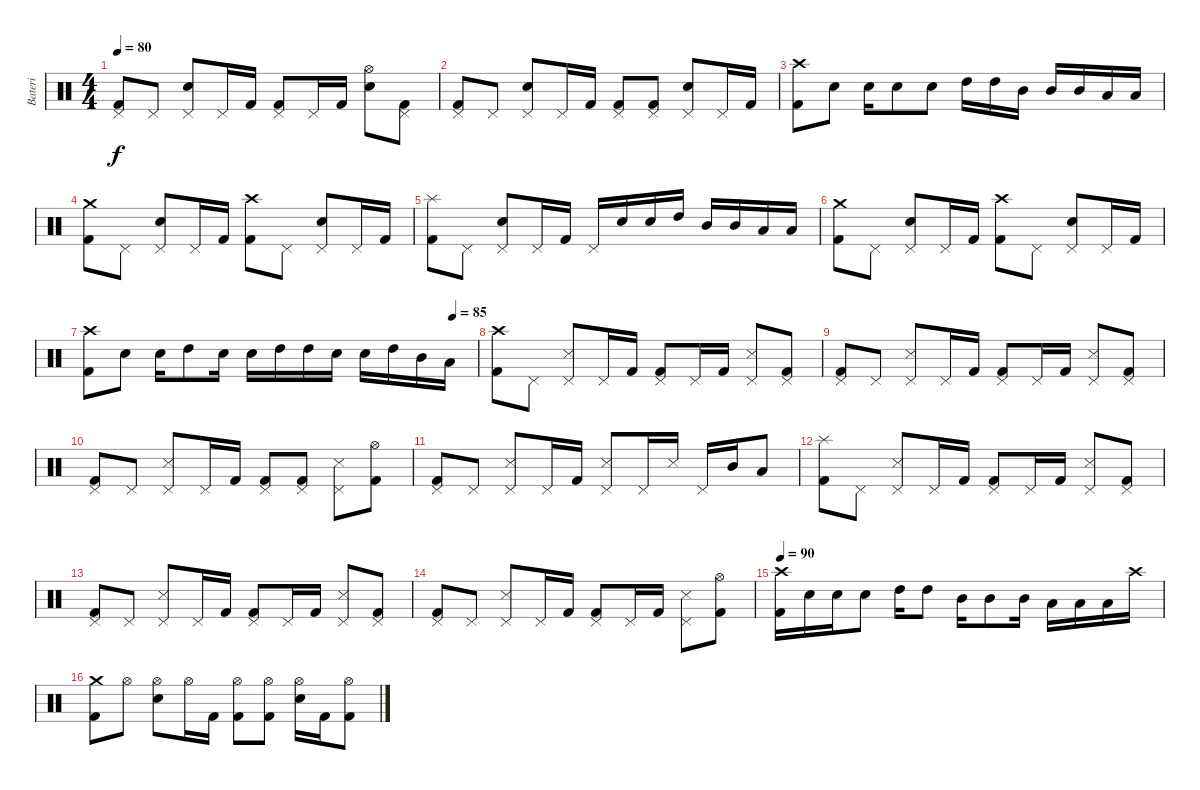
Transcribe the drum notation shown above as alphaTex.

\track ("Bateri" "Bateri") {instrument percussion}
\staff {score}
\articulation defaults
\ts (4 4)
\tempo 80
\clef neutral
\ks c
("Pedal Hi-Hat (hit)" "Kick (hit) 2").8{dy f} "Pedal Hi-Hat (hit)".8 ("Pedal Hi-Hat (hit)" "Electric Snare (hit)").8 "Pedal Hi-Hat (hit)".16 "Kick (hit) 2".16 ("Pedal Hi-Hat (hit)" "Kick (hit) 2").8 "Pedal Hi-Hat (hit)".16 "Kick (hit) 2".16 ("Hi-Hat (open)" "Electric Snare (hit)").8 ("Pedal Hi-Hat (hit)" "Kick (hit) 2").8 |
("Pedal Hi-Hat (hit)" "Kick (hit) 2").8 "Pedal Hi-Hat (hit)".8 ("Pedal Hi-Hat (hit)" "Electric Snare (hit)").8 "Pedal Hi-Hat (hit)".16 "Kick (hit) 2".16 ("Pedal Hi-Hat (hit)" "Kick (hit) 2").8 ("Pedal Hi-Hat (hit)" "Kick (hit) 2").8 ("Pedal Hi-Hat (hit)" "Electric Snare (hit)").8 "Pedal Hi-Hat (hit)".16 "Kick (hit) 2".16 |
("Crash high (hit)" "Kick (hit) 2").8 "Electric Snare (hit)".8 "Electric Snare (hit)".16 "Electric Snare (hit)".8 "Electric Snare (hit)".8 "High Tom (hit)".16 "High Tom (hit)".16 "Mid Tom (hit)".16 "Mid Tom (hit)".16 "Mid Tom (hit)".16 "Low Tom (hit)".16 "Low Tom (hit)".16 |
("Crash medium (hit)" "Kick (hit) 2").8 "Pedal Hi-Hat (hit)".8 ("Pedal Hi-Hat (hit)" "Electric Snare (hit)").8 "Pedal Hi-Hat (hit)".16 "Kick (hit) 2".16 ("Crash high (hit)" "Kick (hit) 2").8 "Pedal Hi-Hat (hit)".8 ("Pedal Hi-Hat (hit)" "Electric Snare (hit)").8 "Pedal Hi-Hat (hit)".16 "Kick (hit) 2".16 |
("Splash (hit)" "Kick (hit) 2").8 "Pedal Hi-Hat (hit)".8 ("Pedal Hi-Hat (hit)" "Electric Snare (hit)").8 "Pedal Hi-Hat (hit)".16 "Kick (hit) 2".16 "Pedal Hi-Hat (hit)".16 "Electric Snare (hit)".16 "Electric Snare (hit)".16 "High Tom (hit)".16 "Mid Tom (hit)".16 "Mid Tom (hit)".16 "Low Tom (hit)".16 "Low Tom (hit)".16 |
("Crash medium (hit)" "Kick (hit) 2").8 "Pedal Hi-Hat (hit)".8 ("Pedal Hi-Hat (hit)" "Electric Snare (hit)").8 "Pedal Hi-Hat (hit)".16 "Kick (hit) 2".16 ("Crash high (hit)" "Kick (hit) 2").8 "Pedal Hi-Hat (hit)".8 ("Pedal Hi-Hat (hit)" "Electric Snare (hit)").8 "Pedal Hi-Hat (hit)".16 "Kick (hit) 2".16 |
\tempo (85 0.9375)
("Crash high (hit)" "Kick (hit) 2").8 "Electric Snare (hit)".8 "Electric Snare (hit)".16 "High Tom (hit)".8 "Electric Snare (hit)".16 "Electric Snare (hit)".16 "High Tom (hit)".16 "High Tom (hit)".16 "Electric Snare (hit)".16 "Electric Snare (hit)".16 "High Tom (hit)".16 "Mid Tom (hit)".16 "Low Tom (hit)".16 |
("Kick (hit) 2" "Crash high (hit)").8 "Pedal Hi-Hat (hit)".8 ("Pedal Hi-Hat (hit)" "Snare (side stick) 3").8 "Pedal Hi-Hat (hit)".16 "Kick (hit) 2".16 ("Pedal Hi-Hat (hit)" "Kick (hit) 2").8 "Pedal Hi-Hat (hit)".16 "Kick (hit) 2".16 ("Pedal Hi-Hat (hit)" "Snare (side stick) 3").8 ("Pedal Hi-Hat (hit)" "Kick (hit) 2").8 |
("Kick (hit) 2" "Pedal Hi-Hat (hit)").8 "Pedal Hi-Hat (hit)".8 ("Pedal Hi-Hat (hit)" "Snare (side stick) 3").8 "Pedal Hi-Hat (hit)".16 "Kick (hit) 2".16 ("Pedal Hi-Hat (hit)" "Kick (hit) 2").8 "Pedal Hi-Hat (hit)".16 "Kick (hit) 2".16 ("Pedal Hi-Hat (hit)" "Snare (side stick) 3").8 ("Pedal Hi-Hat (hit)" "Kick (hit) 2").8 |
("Pedal Hi-Hat (hit)" "Kick (hit) 2").8 "Pedal Hi-Hat (hit)".8 ("Pedal Hi-Hat (hit)" "Snare (side stick) 3").8 "Pedal Hi-Hat (hit)".16 "Kick (hit) 2".16 ("Pedal Hi-Hat (hit)" "Kick (hit) 2").8 ("Pedal Hi-Hat (hit)" "Kick (hit) 2").8 ("Pedal Hi-Hat (hit)" "Snare (side stick) 3").8 ("Hi-Hat (open)" "Kick (hit) 2").8 |
("Kick (hit) 2" "Pedal Hi-Hat (hit)").8 "Pedal Hi-Hat (hit)".8 ("Pedal Hi-Hat (hit)" "Snare (side stick) 3").8 "Pedal Hi-Hat (hit)".16 "Kick (hit) 2".16 ("Pedal Hi-Hat (hit)" "Snare (side stick) 3").8 "Pedal Hi-Hat (hit)".16 "Snare (side stick) 3".16 "Pedal Hi-Hat (hit)".16 "Mid Tom (hit)".16 "Low Tom (hit)".8 |
("Kick (hit) 2" "Splash (hit)").8 "Pedal Hi-Hat (hit)".8 ("Pedal Hi-Hat (hit)" "Snare (side stick) 3").8 "Pedal Hi-Hat (hit)".16 "Kick (hit) 2".16 ("Pedal Hi-Hat (hit)" "Kick (hit) 2").8 "Pedal Hi-Hat (hit)".16 "Kick (hit) 2".16 ("Pedal Hi-Hat (hit)" "Snare (side stick) 3").8 ("Pedal Hi-Hat (hit)" "Kick (hit) 2").8 |
("Kick (hit) 2" "Pedal Hi-Hat (hit)").8 "Pedal Hi-Hat (hit)".8 ("Pedal Hi-Hat (hit)" "Snare (side stick) 3").8 "Pedal Hi-Hat (hit)".16 "Kick (hit) 2".16 ("Pedal Hi-Hat (hit)" "Kick (hit) 2").8 "Pedal Hi-Hat (hit)".16 "Kick (hit) 2".16 ("Pedal Hi-Hat (hit)" "Snare (side stick) 3").8 ("Pedal Hi-Hat (hit)" "Kick (hit) 2").8 |
("Kick (hit) 2" "Pedal Hi-Hat (hit)").8 "Pedal Hi-Hat (hit)".8 ("Pedal Hi-Hat (hit)" "Snare (side stick) 3").8 "Pedal Hi-Hat (hit)".16 "Kick (hit) 2".16 ("Pedal Hi-Hat (hit)" "Kick (hit) 2").8 "Pedal Hi-Hat (hit)".16 "Kick (hit) 2".16 ("Pedal Hi-Hat (hit)" "Snare (side stick) 3").8 ("Hi-Hat (open)" "Kick (hit) 2").8 |
\tempo 90
("Crash high (hit)" "Kick (hit) 2").16 "Electric Snare (hit)".16 "Electric Snare (hit)".16 "Electric Snare (hit)".8 "High Tom (hit)".16 "High Tom (hit)".8 "Mid Tom (hit)".16 "Mid Tom (hit)".8 "Mid Tom (hit)".16 "Low Tom (hit)".16 "Low Tom (hit)".16 "Low Tom (hit)".16 "Crash high (hit)".16 |
("Crash medium (hit)" "Kick (hit) 2").8 "Hi-Hat (open)".8 ("Hi-Hat (open)" "Electric Snare (hit)").8 "Hi-Hat (open)".16 "Kick (hit) 2".16 ("Hi-Hat (open)" "Kick (hit) 2").8 ("Hi-Hat (open)" "Kick (hit) 2").8 ("Hi-Hat (open)" "Electric Snare (hit)").16 "Kick (hit) 2".16 ("Hi-Hat (open)" "Kick (hit) 2").8
